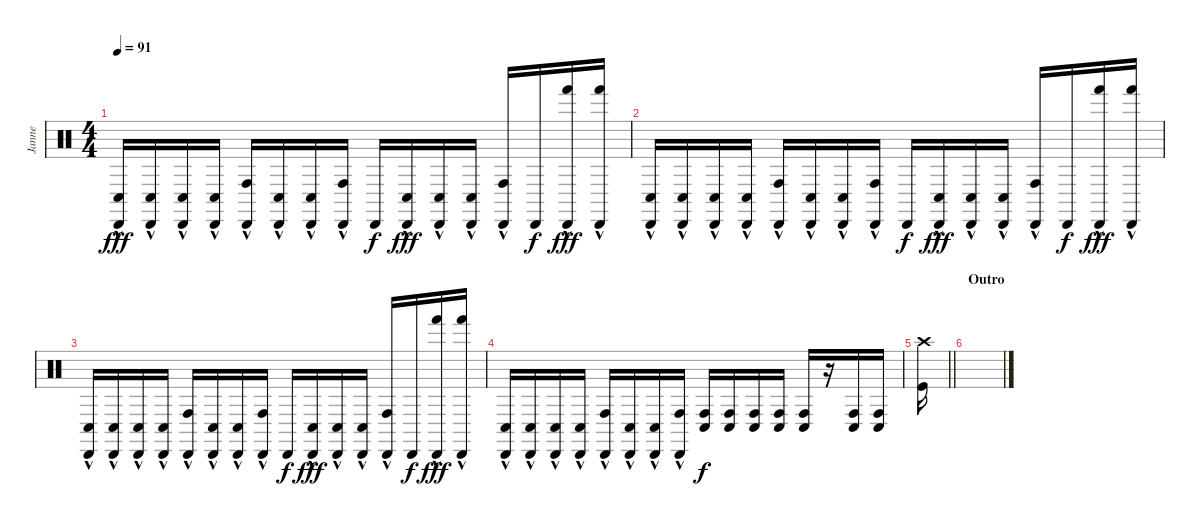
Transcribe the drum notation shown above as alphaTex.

\track ("Janne" "Janne") {instrument percussion}
\staff {score}
\articulation defaults
\ts (4 4)
\tempo 91
\clef neutral
\ks c
("Cabasa (hit)" "Conga low (hit)"{hac}).16{dy fff} ("Cabasa (hit)" "Conga low (hit)"{hac}).16 ("Cabasa (hit)" "Conga low (hit)"{hac}).16 ("Cabasa (hit)" "Conga low (hit)"{hac}).16 ("Cabasa (hit)" "Conga high (hit)"{hac}).16 ("Cabasa (hit)" "Conga low (hit)"{hac}).16 ("Cabasa (hit)" "Conga low (hit)"{hac}).16 ("Cabasa (hit)" "Conga high (hit)"{hac}).16 "Cabasa (hit)".16{dy f} ("Cabasa (hit)" "Conga low (hit)"{hac}).16{dy fff} ("Cabasa (hit)" "Conga low (hit)"{hac}).16 ("Cabasa (hit)" "Conga low (hit)"{hac}).16 ("Cabasa (hit)" "Conga high (hit)"{hac}).16 "Cabasa (hit)".16{dy f} ("Cabasa (hit)" "Hand (hit)"{hac}).16{dy fff} ("Cabasa (hit)" "Hand (hit)"{hac}).16 |
("Cabasa (hit)" "Conga low (hit)"{hac}).16 ("Cabasa (hit)" "Conga low (hit)"{hac}).16 ("Cabasa (hit)" "Conga low (hit)"{hac}).16 ("Cabasa (hit)" "Conga low (hit)"{hac}).16 ("Cabasa (hit)" "Conga high (hit)"{hac}).16 ("Cabasa (hit)" "Conga low (hit)"{hac}).16 ("Cabasa (hit)" "Conga low (hit)"{hac}).16 ("Cabasa (hit)" "Conga high (hit)"{hac}).16 "Cabasa (hit)".16{dy f} ("Cabasa (hit)" "Conga low (hit)"{hac}).16{dy fff} ("Cabasa (hit)" "Conga low (hit)"{hac}).16 ("Cabasa (hit)" "Conga low (hit)"{hac}).16 ("Cabasa (hit)" "Conga high (hit)"{hac}).16 "Cabasa (hit)".16{dy f} ("Cabasa (hit)" "Hand (hit)"{hac}).16{dy fff} ("Cabasa (hit)" "Hand (hit)"{hac}).16 |
("Cabasa (hit)" "Conga low (hit)"{hac}).16 ("Cabasa (hit)" "Conga low (hit)"{hac}).16 ("Cabasa (hit)" "Conga low (hit)"{hac}).16 ("Cabasa (hit)" "Conga low (hit)"{hac}).16 ("Cabasa (hit)" "Conga high (hit)"{hac}).16 ("Cabasa (hit)" "Conga low (hit)"{hac}).16 ("Cabasa (hit)" "Conga low (hit)"{hac}).16 ("Cabasa (hit)" "Conga high (hit)"{hac}).16 "Cabasa (hit)".16{dy f} ("Cabasa (hit)" "Conga low (hit)"{hac}).16{dy fff} ("Cabasa (hit)" "Conga low (hit)"{hac}).16 ("Cabasa (hit)" "Conga low (hit)"{hac}).16 ("Cabasa (hit)" "Conga high (hit)"{hac}).16 "Cabasa (hit)".16{dy f} ("Cabasa (hit)" "Hand (hit)"{hac}).16{dy fff} ("Cabasa (hit)" "Hand (hit)"{hac}).16 |
("Cabasa (hit)" "Conga low (hit)"{hac}).16 ("Cabasa (hit)" "Conga low (hit)"{hac}).16 ("Cabasa (hit)" "Conga low (hit)"{hac}).16 ("Cabasa (hit)" "Conga low (hit)"{hac}).16 ("Cabasa (hit)" "Conga high (hit)"{hac}).16 ("Cabasa (hit)" "Conga low (hit)"{hac}).16 ("Cabasa (hit)" "Conga low (hit)"{hac}).16 ("Cabasa (hit)" "Conga high (hit)"{hac}).16 ("Conga low (hit)" "Conga high (hit)").16{dy f} ("Conga low (hit)" "Conga high (hit)").16 ("Conga low (hit)" "Conga high (hit)").16 ("Conga low (hit)" "Conga high (hit)").16 ("Conga low (hit)" "Conga high (hit)").16 r.16 ("Conga low (hit)" "Conga high (hit)").16 ("Conga low (hit)" "Conga high (hit)").16 |
\barLineRight lightlight
("Crash high (hit)" "Kick (hit)").16 |
\section ("" "Outro")
